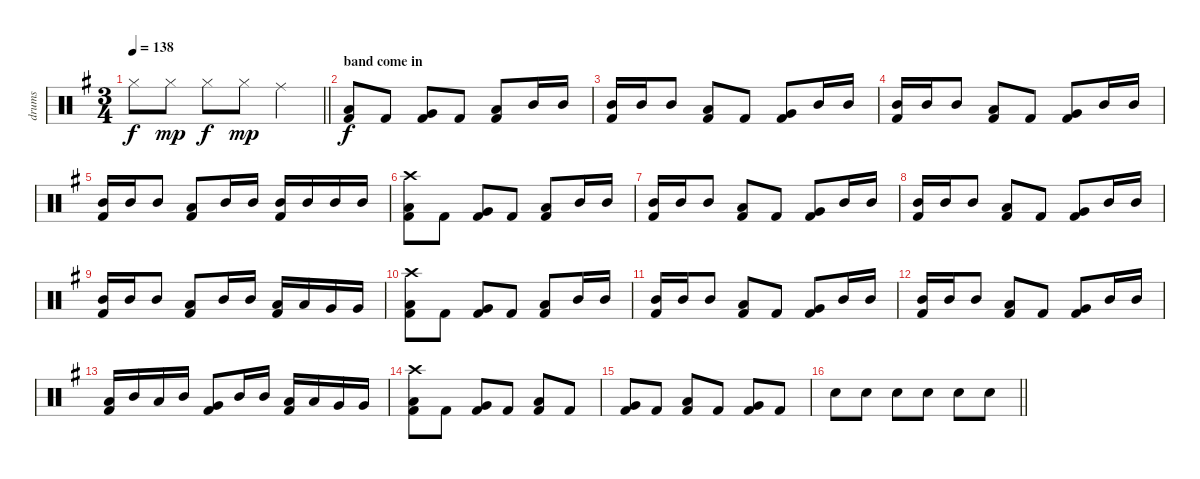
\track ("drums" "drums") {instrument percussion}
\staff {score}
\articulation defaults
\ts (3 4)
\tempo 138
\clef neutral
\barLineRight lightlight
\ks eminor "Hi-Hat (closed)".8{dy f} "Hi-Hat (closed)".8{dy mp} "Hi-Hat (closed)".8{dy f} "Hi-Hat (closed)".8{dy mp} "Ride (middle)".4
|
\section ("" "band come in")
("Low Tom (hit)" "Kick (hit) 2").8{dy f} "Kick (hit) 2".8 ("Very Low Tom (hit)" "Kick (hit) 2").8 "Kick (hit) 2".8 ("Low Tom (hit)" "Kick (hit) 2").8 "Mid Tom (hit)".16 "Mid Tom (hit)".16 |
("Mid Tom (hit)" "Kick (hit) 2").16 "Mid Tom (hit)".16 "Mid Tom (hit)".8 ("Low Tom (hit)" "Kick (hit) 2").8 "Kick (hit) 2".8 ("Very Low Tom (hit)" "Kick (hit) 2").8 "Mid Tom (hit)".16 "Mid Tom (hit)".16 |
("Mid Tom (hit)" "Kick (hit) 2").16 "Mid Tom (hit)".16 "Mid Tom (hit)".8 ("Low Tom (hit)" "Kick (hit) 2").8 "Kick (hit) 2".8 ("Very Low Tom (hit)" "Kick (hit) 2").8 "Mid Tom (hit)".16 "Mid Tom (hit)".16 |
("Mid Tom (hit)" "Kick (hit) 2").16 "Mid Tom (hit)".16 "Mid Tom (hit)".8 ("Low Tom (hit)" "Kick (hit) 2").8 "Mid Tom (hit)".16 "Mid Tom (hit)".16 ("Mid Tom (hit)" "Kick (hit) 2").16 "Mid Tom (hit)".16 "Mid Tom (hit)".16 "Mid Tom (hit)".16 |
("Crash high (hit)" "Low Tom (hit)" "Kick (hit) 2").8 "Kick (hit) 2".8 ("Very Low Tom (hit)" "Kick (hit) 2").8 "Kick (hit) 2".8 ("Low Tom (hit)" "Kick (hit) 2").8 "Mid Tom (hit)".16 "Mid Tom (hit)".16 |
("Mid Tom (hit)" "Kick (hit) 2").16 "Mid Tom (hit)".16 "Mid Tom (hit)".8 ("Low Tom (hit)" "Kick (hit) 2").8 "Kick (hit) 2".8 ("Very Low Tom (hit)" "Kick (hit) 2").8 "Mid Tom (hit)".16 "Mid Tom (hit)".16 |
("Mid Tom (hit)" "Kick (hit) 2").16 "Mid Tom (hit)".16 "Mid Tom (hit)".8 ("Low Tom (hit)" "Kick (hit) 2").8 "Kick (hit) 2".8 ("Very Low Tom (hit)" "Kick (hit) 2").8 "Mid Tom (hit)".16 "Mid Tom (hit)".16 |
("Mid Tom (hit)" "Kick (hit) 2").16 "Mid Tom (hit)".16 "Mid Tom (hit)".8 ("Low Tom (hit)" "Kick (hit) 2").8 "Mid Tom (hit)".16 "Mid Tom (hit)".16 ("Low Tom (hit)" "Kick (hit) 2").16 "Low Tom (hit)".16 "Very Low Tom (hit)".16 "Very Low Tom (hit)".16 |
("Crash high (hit)" "Low Tom (hit)" "Kick (hit) 2").8 "Kick (hit) 2".8 ("Very Low Tom (hit)" "Kick (hit) 2").8 "Kick (hit) 2".8 ("Low Tom (hit)" "Kick (hit) 2").8 "Mid Tom (hit)".16 "Mid Tom (hit)".16 |
("Mid Tom (hit)" "Kick (hit) 2").16 "Mid Tom (hit)".16 "Mid Tom (hit)".8 ("Low Tom (hit)" "Kick (hit) 2").8 "Kick (hit) 2".8 ("Very Low Tom (hit)" "Kick (hit) 2").8 "Mid Tom (hit)".16 "Mid Tom (hit)".16 |
("Mid Tom (hit)" "Kick (hit) 2").16 "Mid Tom (hit)".16 "Mid Tom (hit)".8 ("Low Tom (hit)" "Kick (hit) 2").8 "Kick (hit) 2".8 ("Very Low Tom (hit)" "Kick (hit) 2").8 "Mid Tom (hit)".16 "Mid Tom (hit)".16 |
("Low Tom (hit)" "Kick (hit) 2").16 "Mid Tom (hit)".16 "Low Tom (hit)".16 "Mid Tom (hit)".16 ("Very Low Tom (hit)" "Kick (hit) 2").8 "Mid Tom (hit)".16 "Mid Tom (hit)".16 ("Low Tom (hit)" "Kick (hit) 2").16 "Low Tom (hit)".16 "Very Low Tom (hit)".16 "Very Low Tom (hit)".16 |
("Crash high (hit)" "Low Tom (hit)" "Kick (hit) 2").8 "Kick (hit) 2".8 ("Very Low Tom (hit)" "Kick (hit) 2").8 "Kick (hit) 2".8 ("Low Tom (hit)" "Kick (hit) 2").8 "Kick (hit) 2".8 |
("Very Low Tom (hit)" "Kick (hit) 2").8 "Kick (hit) 2".8 ("Low Tom (hit)" "Kick (hit) 2").8 "Kick (hit) 2".8 ("Very Low Tom (hit)" "Kick (hit) 2").8 "Kick (hit) 2".8 |
\barLineRight lightlight "Snare (hit) 2".8 "Snare (hit) 2".8 "Snare (hit) 2".8 "Snare (hit) 2".8 "Snare (hit) 2".8 "Snare (hit) 2".8
